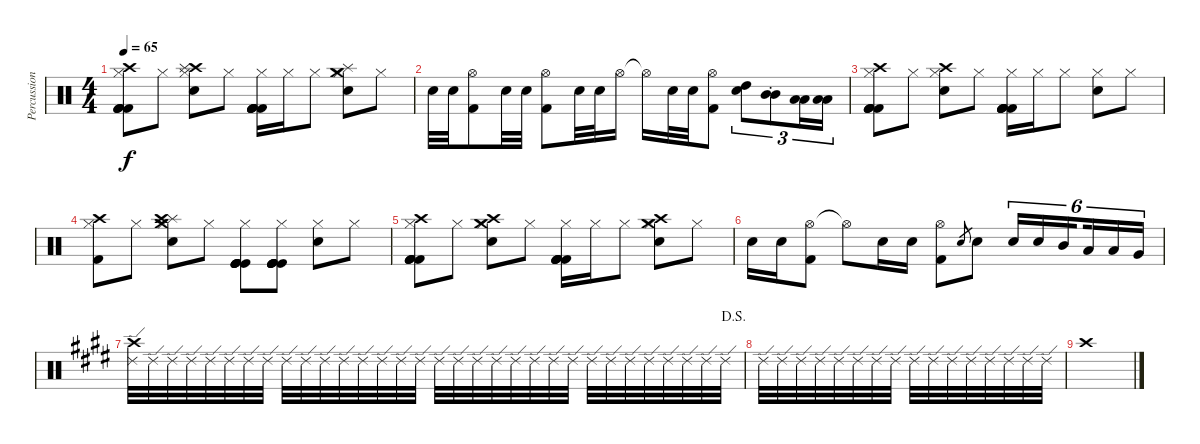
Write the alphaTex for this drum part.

\track ("Percussion" "Percussion") {instrument percussion}
\staff {score}
\articulation defaults
\ts (4 4)
\tempo 65
\clef neutral
\ks c
("Kick (hit) 2" "Hi-Hat (closed)" "Crash high (hit)" "Kick (hit) 2" "Kick (hit) 2" "Kick (hit) 2").8{dy f} "Hi-Hat (closed)".8 ("Hi-Hat (closed)" "Snare (hit) 2" "Crash high (hit)" "Splash (hit)").8 "Hi-Hat (closed)".8 ("Hi-Hat (closed)" "Kick (hit) 2" "Kick (hit) 2" "Kick (hit) 2" "Kick (hit) 2" "Kick (hit) 2").16 "Hi-Hat (closed)".16 "Hi-Hat (closed)".8 ("Hi-Hat (closed)" "Snare (hit) 2" "Crash medium (hit)" "Splash (hit)").8 "Hi-Hat (closed)".8 |
"Snare (hit) 2".32 "Snare (hit) 2".32 ("Hi-Hat (open)" "Kick (hit) 2").8 "Snare (hit) 2".32 "Snare (hit) 2".32 ("Hi-Hat (open)" "Kick (hit) 2").8 "Snare (hit) 2".32 "Snare (hit) 2".32 "Hi-Hat (open)".16 "Hi-Hat (open)"{t}.16 "Snare (hit) 2".32 "Snare (hit) 2".32 ("Hi-Hat (open)" "Kick (hit) 2").8 ("High Tom (hit)" "Snare (hit) 2").8{tu (3 2)} ("Mid Tom (hit)" "Mid Tom (hit)"{st}).8{tu (3 2)} ("Low Tom (hit)" "Low Tom (hit)").16{tu (3 2)} ("Low Tom (hit)" "Low Tom (hit)").16{tu (3 2)} |
("Kick (hit) 2" "Hi-Hat (closed)" "Crash high (hit)" "Kick (hit) 2" "Kick (hit) 2" "Kick (hit) 2").8 "Hi-Hat (closed)".8 ("Hi-Hat (closed)" "Snare (hit) 2" "Crash high (hit)").8 "Hi-Hat (closed)".8 ("Hi-Hat (closed)" "Kick (hit) 2" "Kick (hit) 2" "Kick (hit) 2" "Kick (hit) 2" "Kick (hit) 2").16 "Hi-Hat (closed)".16 "Hi-Hat (closed)".8 ("Hi-Hat (closed)" "Snare (hit) 2").8 "Hi-Hat (closed)".8 |
("Hi-Hat (closed)" "Kick (hit) 2" "Crash high (hit)").8 "Hi-Hat (closed)".8 ("Hi-Hat (closed)" "Snare (hit) 2" "Crash medium (hit)" "Splash (hit)" "Crash high (hit)").8 "Hi-Hat (closed)".8 ("Hi-Hat (closed)" "Kick (hit)" "Kick (hit)" "Kick (hit)" "Kick (hit)" "Kick (hit)").8 ("Hi-Hat (closed)" "Kick (hit)" "Kick (hit)" "Kick (hit)" "Kick (hit)" "Kick (hit)").8 ("Hi-Hat (closed)" "Snare (hit) 2").8 "Hi-Hat (closed)".8 |
("Kick (hit) 2" "Hi-Hat (closed)" "Crash high (hit)" "Kick (hit) 2" "Kick (hit) 2" "Kick (hit) 2").8 "Hi-Hat (closed)".8 ("Hi-Hat (closed)" "Snare (hit) 2" "Crash high (hit)" "Crash medium (hit)").8 "Hi-Hat (closed)".8 ("Hi-Hat (closed)" "Kick (hit) 2" "Kick (hit) 2" "Kick (hit) 2" "Kick (hit) 2" "Kick (hit) 2").16 "Hi-Hat (closed)".16 "Hi-Hat (closed)".8 ("Hi-Hat (closed)" "Snare (hit) 2" "Crash medium (hit)" "Crash high (hit)").8 "Hi-Hat (closed)".8 |
"Snare (hit) 2".16 "Snare (hit) 2".16 ("Hi-Hat (open)" "Kick (hit) 2").8 "Hi-Hat (open)"{t}.8 "Snare (hit) 2".16 "Snare (hit) 2".16 ("Hi-Hat (open)" "Kick (hit) 2").8 "Snare (hit) 2".8{gr} "Snare (hit) 2".8 "Snare (hit) 2".16{tu (6 4)} "Snare (hit) 2".16{tu (6 4)} "Mid Tom (hit)".16{tu (6 4) beam splitsecondary} "Low Tom (hit)".16{tu (6 4)} "Low Tom (hit)".16{tu (6 4)} "Very Low Tom (hit)".16{tu (6 4)} |
\jump dalsegno
\ks e
("Ride (edge) 2" "Crash high (hit)").32 "Ride (edge) 2".32 "Ride (edge) 2".32 "Ride (edge) 2".32 "Ride (edge) 2".32 "Ride (edge) 2".32 "Ride (edge) 2".32 "Ride (edge) 2".32 "Ride (edge) 2".32 "Ride (edge) 2".32 "Ride (edge) 2".32 "Ride (edge) 2".32 "Ride (edge) 2".32 "Ride (edge) 2".32 "Ride (edge) 2".32 "Ride (edge) 2".32 "Ride (edge) 2".32 "Ride (edge) 2".32 "Ride (edge) 2".32 "Ride (edge) 2".32 "Ride (edge) 2".32 "Ride (edge) 2".32 "Ride (edge) 2".32 "Ride (edge) 2".32 "Ride (edge) 2".32 "Ride (edge) 2".32 "Ride (edge) 2".32 "Ride (edge) 2".32 "Ride (edge) 2".32 "Ride (edge) 2".32 "Ride (edge) 2".32 "Ride (edge) 2".32 |
"Ride (edge) 2".32 "Ride (edge) 2".32 "Ride (edge) 2".32 "Ride (edge) 2".32 "Ride (edge) 2".32 "Ride (edge) 2".32 "Ride (edge) 2".32 "Ride (edge) 2".32 "Ride (edge) 2".32 "Ride (edge) 2".32 "Ride (edge) 2".32 "Ride (edge) 2".32 "Ride (edge) 2".32 "Ride (edge) 2".32 "Ride (edge) 2".32 "Ride (edge) 2".32 |
"Crash high (hit)".1
